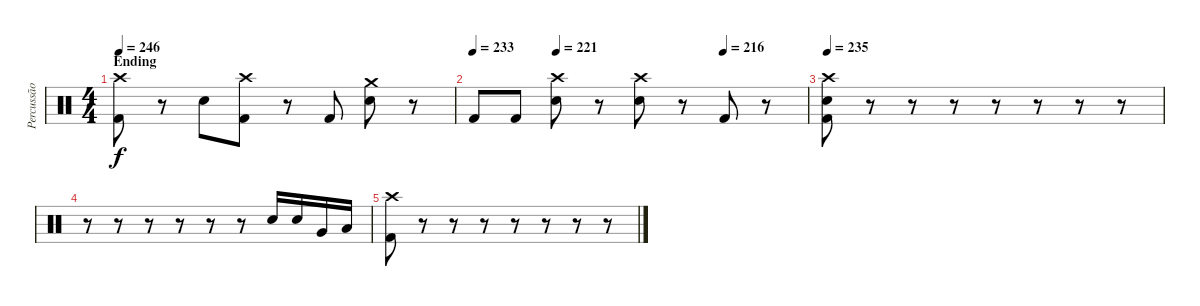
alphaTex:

\track ("Percussão" "Percussão") {instrument percussion}
\staff {score}
\articulation defaults
\ts (4 4)
\section ("" "Ending")
\tempo 246
\clef neutral
\ks c
("Crash high (hit)" "Kick (hit) 2").8{dy f} r.8 "Electric Snare (hit)".8 ("Crash high (hit)" "Kick (hit) 2").8 r.8 "Kick (hit) 2".8 ("Crash medium (hit)" "Electric Snare (hit)").8 r.8 |
\tempo 233
\tempo (221 0.25)
\tempo (216 0.75)
"Kick (hit) 2".8 "Kick (hit) 2".8 ("Crash high (hit)" "Electric Snare (hit)").8 r.8 ("Crash high (hit)" "Electric Snare (hit)").8 r.8 "Kick (hit) 2".8 r.8 |
\tempo 235
("Crash high (hit)" "Electric Snare (hit)" "Kick (hit) 2").8 r.8 r.8 r.8 r.8 r.8 r.8 r.8 |
r.8 r.8 r.8 r.8 r.8 r.8 "Electric Snare (hit)".16 "Electric Snare (hit)".16 "Very Low Tom (hit)".16 "Low Tom (hit)".16 |
("Crash high (hit)" "Kick (hit) 2").8 r.8 r.8 r.8 r.8 r.8 r.8 r.8
